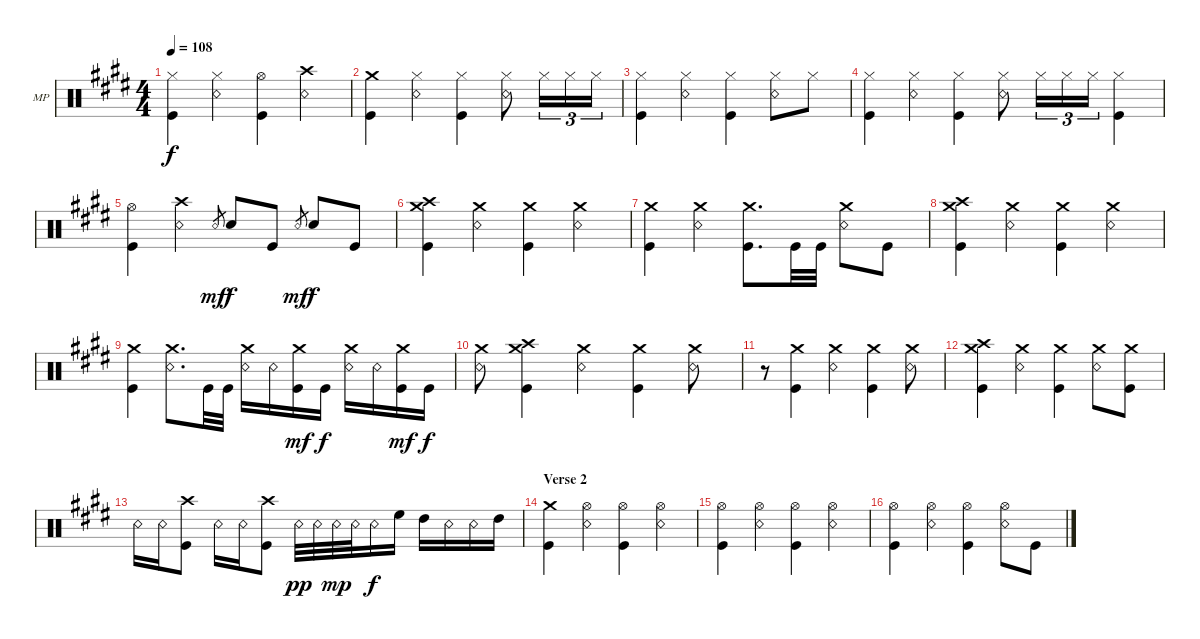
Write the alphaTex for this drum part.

\defaultSystemsLayout 4
\bracketExtendMode groupsimilarinstruments
\firstSystemTrackNameOrientation horizontal
\otherSystemsTrackNameOrientation horizontal
\track ("Mike Portnoy" "MP") {instrument percussion}
\staff {score}
\articulation defaults
\ts (4 4)
\tempo 108
\clef neutral
\ks e
("Hi-Hat (closed)" "Kick (hit)").4{dy f} ("Hi-Hat (closed)" "Snare (rim shot)").4 ("Hi-Hat (open)" "Kick (hit)").4 ("Crash high (hit)" "Snare (rim shot)").4 |
("Crash medium (hit)" "Kick (hit)").4 ("Hi-Hat (closed)" "Snare (rim shot)").4 ("Hi-Hat (closed)" "Kick (hit)").4 ("Hi-Hat (closed)" "Snare (rim shot)").8 "Hi-Hat (closed)".16{tu (3 2)} "Hi-Hat (closed)".16{tu (3 2)} "Hi-Hat (closed)".16{tu (3 2)} |
("Hi-Hat (closed)" "Kick (hit)").4 ("Hi-Hat (closed)" "Snare (rim shot)").4 ("Hi-Hat (closed)" "Kick (hit)").4 ("Hi-Hat (closed)" "Snare (rim shot)").8 "Hi-Hat (closed)".8 |
("Kick (hit)" "Hi-Hat (closed)").4 ("Hi-Hat (closed)" "Snare (rim shot)").4 ("Hi-Hat (closed)" "Kick (hit)").4 ("Hi-Hat (closed)" "Snare (rim shot)").8 "Hi-Hat (closed)".16{tu (3 2)} "Hi-Hat (closed)".16{tu (3 2)} "Hi-Hat (closed)".16{tu (3 2)} ("Kick (hit)" "Hi-Hat (closed)").4 |
("Hi-Hat (open)" "Kick (hit)").4 ("Crash high (hit)" "Snare (rim shot)").4 "Snare (rim shot)".8{gr dy mf} "Snare (hit) 2".8{dy f} "Kick (hit)".8 "Snare (rim shot)".8{gr dy mf} "Snare (hit) 2".8{dy f} "Kick (hit)".8 |
("Crash medium (hit)" "Crash high (hit)" "Kick (hit)").4 ("Crash medium (hit)" "Snare (rim shot)").4 ("Crash medium (hit)" "Kick (hit)").4 ("Crash medium (hit)" "Snare (rim shot)").4 |
("Crash medium (hit)" "Kick (hit)").4 ("Crash medium (hit)" "Snare (rim shot)").4 ("Crash medium (hit)" "Kick (hit)").8{d} "Kick (hit)".32 "Kick (hit)".32 ("Crash medium (hit)" "Snare (rim shot)").8 "Kick (hit)".8 |
("Crash medium (hit)" "Crash high (hit)" "Kick (hit)").4 ("Crash medium (hit)" "Snare (rim shot)").4 ("Crash medium (hit)" "Kick (hit)").4 ("Crash medium (hit)" "Snare (rim shot)").4 |
("Crash medium (hit)" "Kick (hit)").4 ("Crash medium (hit)" "Snare (rim shot)").8{d} "Kick (hit)".32 "Kick (hit)".32 ("Crash medium (hit)" "Snare (rim shot)").16 "Snare (rim shot)".16 ("Crash medium (hit)" "Kick (hit)").16{dy mf} "Kick (hit)".16{dy f} ("Crash medium (hit)" "Snare (rim shot)").16 "Snare (rim shot)".16 ("Crash medium (hit)" "Kick (hit)").16{dy mf} "Kick (hit)".16{dy f} |
("Crash medium (hit)" "Snare (rim shot)").8 ("Crash medium (hit)" "Crash high (hit)" "Kick (hit)").4 ("Crash medium (hit)" "Snare (rim shot)").4 ("Crash medium (hit)" "Kick (hit)").4 ("Crash medium (hit)" "Snare (rim shot)").8 |
r.8 ("Crash medium (hit)" "Kick (hit)").4 ("Crash medium (hit)" "Snare (rim shot)").4 ("Crash medium (hit)" "Kick (hit)").4 ("Crash medium (hit)" "Snare (rim shot)").8 |
("Crash medium (hit)" "Crash high (hit)" "Kick (hit)").4 ("Crash medium (hit)" "Snare (rim shot)").4 ("Crash medium (hit)" "Kick (hit)").4 ("Crash medium (hit)" "Snare (rim shot)").8 ("Crash medium (hit)" "Kick (hit)").8 |
"Snare (rim shot)".16 "Snare (rim shot)".16 ("Crash high (hit)" "Kick (hit)").8 "Snare (rim shot)".16 "Snare (rim shot)".16 ("Crash high (hit)" "Kick (hit)").8 "Snare (rim shot)".32{dy pp} "Snare (rim shot)".32 "Snare (rim shot)".32{dy mp} "Snare (rim shot)".32 "Snare (rim shot)".16{dy f} "High Floor Tom (hit)".16 "High Tom (hit)".16 "Snare (rim shot)".16 "Snare (rim shot)".16 "High Tom (hit)".16 |
\section ("" "Verse 2")
("Crash medium (hit)" "Kick (hit)").4 ("Hi-Hat (open)" "Snare (rim shot)").4 ("Hi-Hat (open)" "Kick (hit)").4 ("Hi-Hat (open)" "Snare (rim shot)").4 |
("Hi-Hat (open)" "Kick (hit)").4 ("Hi-Hat (open)" "Snare (rim shot)").4 ("Hi-Hat (open)" "Kick (hit)").4 ("Hi-Hat (open)" "Snare (rim shot)").4 |
("Hi-Hat (open)" "Kick (hit)").4 ("Hi-Hat (open)" "Snare (rim shot)").4 ("Hi-Hat (open)" "Kick (hit)").4 ("Hi-Hat (open)" "Snare (rim shot)").8 "Kick (hit)".8
